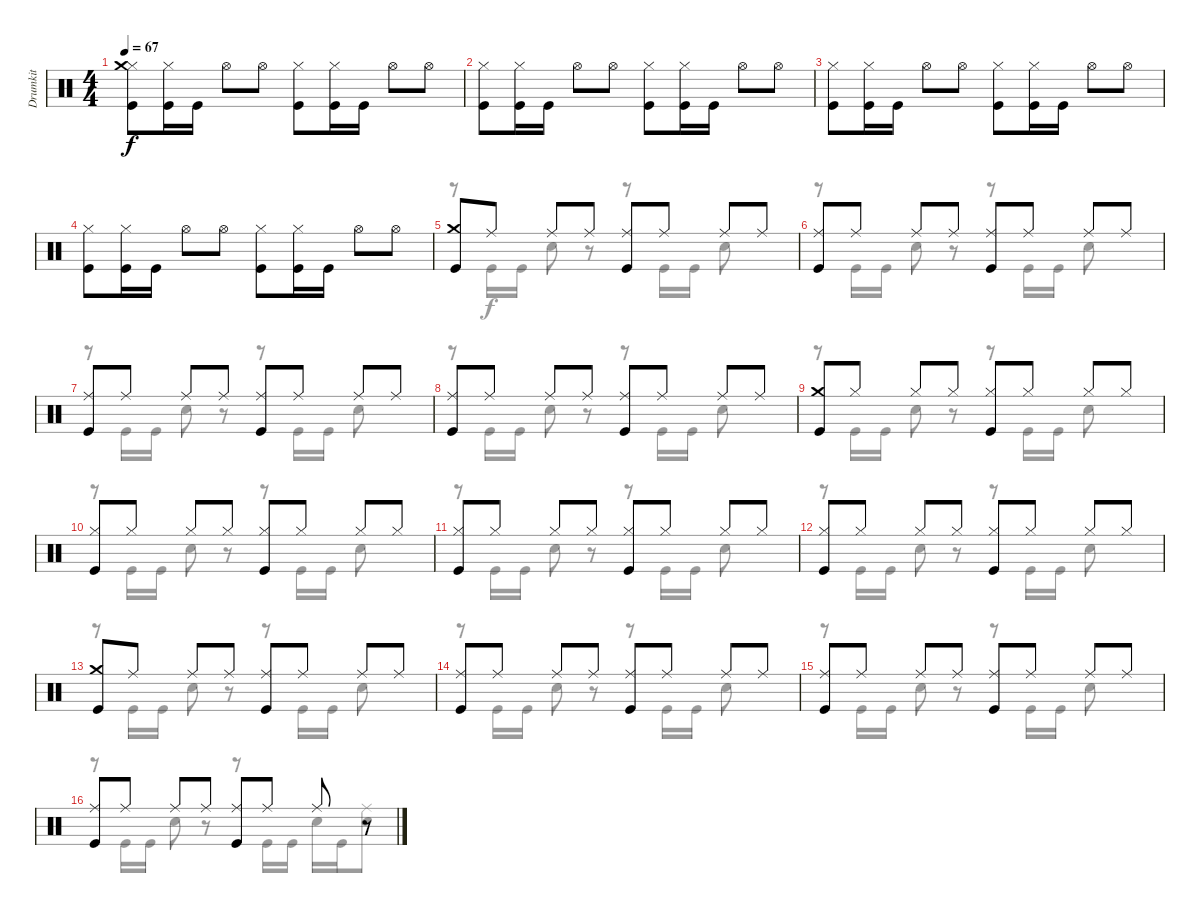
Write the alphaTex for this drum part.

\track ("Drumkit" "Drumkit") {instrument percussion}
\staff {score}
\articulation defaults
\voice
\ts (4 4)
\tempo 67
\clef neutral
\ks c
("Hi-Hat (closed)" "Kick (hit)" "Crash medium (hit)").8{dy f} ("Hi-Hat (closed)" "Kick (hit)").16 "Kick (hit)".16 "Hi-Hat (open)".8 "Hi-Hat (open)".8 ("Hi-Hat (closed)" "Kick (hit)").8 ("Hi-Hat (closed)" "Kick (hit)").16 "Kick (hit)".16 "Hi-Hat (open)".8 "Hi-Hat (open)".8 |
("Hi-Hat (closed)" "Kick (hit)").8 ("Hi-Hat (closed)" "Kick (hit)").16 "Kick (hit)".16 "Hi-Hat (open)".8 "Hi-Hat (open)".8 ("Hi-Hat (closed)" "Kick (hit)").8 ("Hi-Hat (closed)" "Kick (hit)").16 "Kick (hit)".16 "Hi-Hat (open)".8 "Hi-Hat (open)".8 |
("Hi-Hat (closed)" "Kick (hit)").8 ("Hi-Hat (closed)" "Kick (hit)").16 "Kick (hit)".16 "Hi-Hat (open)".8 "Hi-Hat (open)".8 ("Hi-Hat (closed)" "Kick (hit)").8 ("Hi-Hat (closed)" "Kick (hit)").16 "Kick (hit)".16 "Hi-Hat (open)".8 "Hi-Hat (open)".8 |
("Hi-Hat (closed)" "Kick (hit)").8 ("Hi-Hat (closed)" "Kick (hit)").16 "Kick (hit)".16 "Hi-Hat (open)".8 "Hi-Hat (open)".8 ("Hi-Hat (closed)" "Kick (hit)").8 ("Hi-Hat (closed)" "Kick (hit)").16 "Kick (hit)".16 "Hi-Hat (open)".8 "Hi-Hat (open)".8 |
("Crash medium (hit)" "Kick (hit)").8 "Ride (middle)".8 "Ride (middle)".8 "Ride (middle)".8 ("Kick (hit)" "Ride (middle)").8 "Ride (middle)".8 "Ride (middle)".8 "Ride (middle)".8 |
("Kick (hit)" "Ride (middle)").8 "Ride (middle)".8 "Ride (middle)".8 "Ride (middle)".8 ("Kick (hit)" "Ride (middle)").8 "Ride (middle)".8 "Ride (middle)".8 "Ride (middle)".8 |
("Kick (hit)" "Ride (middle)").8 "Ride (middle)".8 "Ride (middle)".8 "Ride (middle)".8 ("Kick (hit)" "Ride (middle)").8 "Ride (middle)".8 "Ride (middle)".8 "Ride (middle)".8 |
("Kick (hit)" "Ride (middle)").8 "Ride (middle)".8 "Ride (middle)".8 "Ride (middle)".8 ("Kick (hit)" "Ride (middle)").8 "Ride (middle)".8 "Ride (middle)".8 "Ride (middle)".8 |
("Crash medium (hit)" "Kick (hit)").8 "Hi-Hat (closed)".8 "Hi-Hat (closed)".8 "Hi-Hat (closed)".8 ("Hi-Hat (closed)" "Kick (hit)").8 "Hi-Hat (closed)".8 "Hi-Hat (closed)".8 "Hi-Hat (closed)".8 |
("Kick (hit)" "Hi-Hat (closed)").8 "Hi-Hat (closed)".8 "Hi-Hat (closed)".8 "Hi-Hat (closed)".8 ("Hi-Hat (closed)" "Kick (hit)").8 "Hi-Hat (closed)".8 "Hi-Hat (closed)".8 "Hi-Hat (closed)".8 |
("Kick (hit)" "Hi-Hat (closed)").8 "Hi-Hat (closed)".8 "Hi-Hat (closed)".8 "Hi-Hat (closed)".8 ("Hi-Hat (closed)" "Kick (hit)").8 "Hi-Hat (closed)".8 "Hi-Hat (closed)".8 "Hi-Hat (closed)".8 |
("Kick (hit)" "Hi-Hat (closed)").8 "Hi-Hat (closed)".8 "Hi-Hat (closed)".8 "Hi-Hat (closed)".8 ("Hi-Hat (closed)" "Kick (hit)").8 "Hi-Hat (closed)".8 "Hi-Hat (closed)".8 "Hi-Hat (closed)".8 |
("Crash medium (hit)" "Kick (hit)").8 "Ride (middle)".8 "Ride (middle)".8 "Ride (middle)".8 ("Kick (hit)" "Ride (middle)").8 "Ride (middle)".8 "Ride (middle)".8 "Ride (middle)".8 |
("Kick (hit)" "Ride (middle)").8 "Ride (middle)".8 "Ride (middle)".8 "Ride (middle)".8 ("Kick (hit)" "Ride (middle)").8 "Ride (middle)".8 "Ride (middle)".8 "Ride (middle)".8 |
("Kick (hit)" "Ride (middle)").8 "Ride (middle)".8 "Ride (middle)".8 "Ride (middle)".8 ("Kick (hit)" "Ride (middle)").8 "Ride (middle)".8 "Ride (middle)".8 "Ride (middle)".8 |
("Kick (hit)" "Ride (middle)").8 "Ride (middle)".8 "Ride (middle)".8 "Ride (middle)".8 ("Kick (hit)" "Ride (middle)").8 "Ride (middle)".8 "Ride (middle)".8 r.8
\voice
\clef neutral
\ottava regular
\simile none
\ks c
|
|
|
|
r.8 "Kick (hit)".16 "Kick (hit)".16 "Snare (hit) 2".8 r.8 r.8 "Kick (hit)".16 "Kick (hit)".16 "Snare (hit) 2".8 |
r.8 "Kick (hit)".16 "Kick (hit)".16 "Snare (hit) 2".8 r.8 r.8 "Kick (hit)".16 "Kick (hit)".16 "Snare (hit) 2".8 |
r.8 "Kick (hit)".16 "Kick (hit)".16 "Snare (hit) 2".8 r.8 r.8 "Kick (hit)".16 "Kick (hit)".16 "Snare (hit) 2".8 |
r.8 "Kick (hit)".16 "Kick (hit)".16 "Snare (hit) 2".8 r.8 r.8 "Kick (hit)".16 "Kick (hit)".16 "Snare (hit) 2".8 |
r.8 "Kick (hit)".16 "Kick (hit)".16 "Snare (hit) 2".8 r.8 r.8 "Kick (hit)".16 "Kick (hit)".16 "Snare (hit) 2".8 |
r.8 "Kick (hit)".16 "Kick (hit)".16 "Snare (hit) 2".8 r.8 r.8 "Kick (hit)".16 "Kick (hit)".16 "Snare (hit) 2".8 |
r.8 "Kick (hit)".16 "Kick (hit)".16 "Snare (hit) 2".8 r.8 r.8 "Kick (hit)".16 "Kick (hit)".16 "Snare (hit) 2".8 |
r.8 "Kick (hit)".16 "Kick (hit)".16 "Snare (hit) 2".8 r.8 r.8 "Kick (hit)".16 "Kick (hit)".16 "Snare (hit) 2".8 |
r.8 "Kick (hit)".16 "Kick (hit)".16 "Snare (hit) 2".8 r.8 r.8 "Kick (hit)".16 "Kick (hit)".16 "Snare (hit) 2".8 |
r.8 "Kick (hit)".16 "Kick (hit)".16 "Snare (hit) 2".8 r.8 r.8 "Kick (hit)".16 "Kick (hit)".16 "Snare (hit) 2".8 |
r.8 "Kick (hit)".16 "Kick (hit)".16 "Snare (hit) 2".8 r.8 r.8 "Kick (hit)".16 "Kick (hit)".16 "Snare (hit) 2".8 |
r.8 "Kick (hit)".16 "Kick (hit)".16 "Snare (hit) 2".8 r.8 r.8 "Kick (hit)".16 "Kick (hit)".16 "Snare (hit) 2".16 "Kick (hit)".16 ("Snare (hit) 2" "Ride (middle)").8
